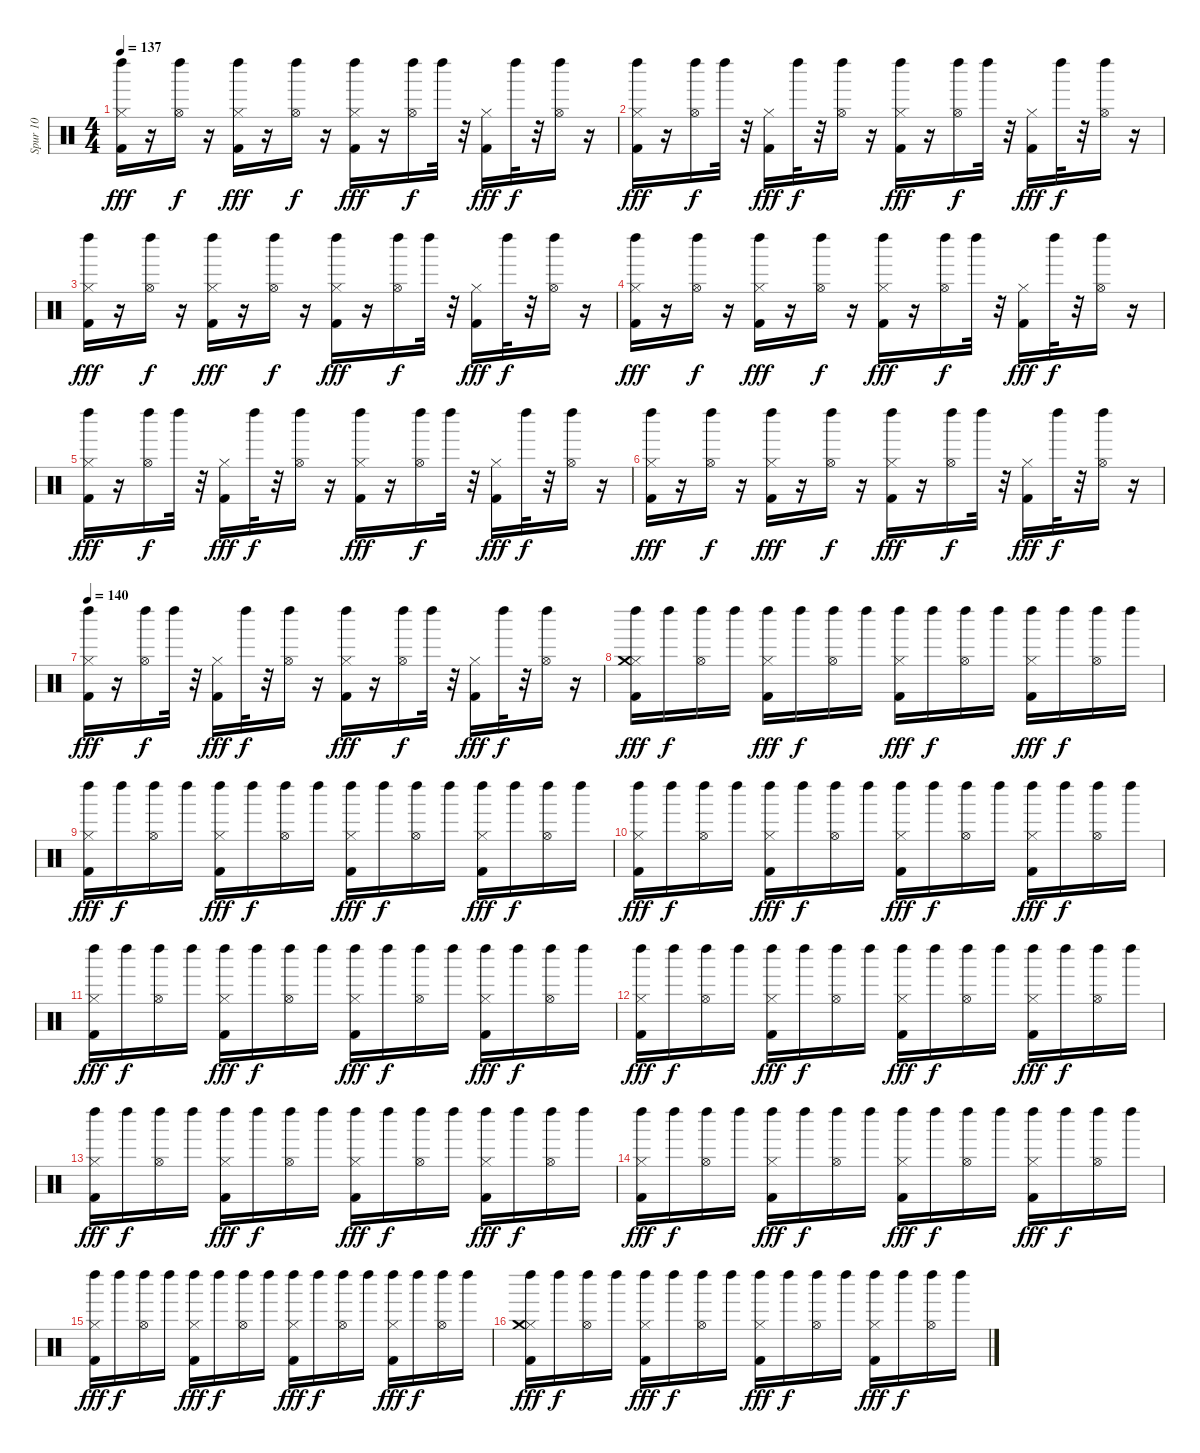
\track ("Spur 10" "Spur 10") {instrument percussion}
\staff {score}
\articulation defaults
\ts (4 4)
\tempo 137
\clef neutral
\ks c
("Kick (hit) 2" "Hi-Hat (closed)" "Left Maraca (hit)").16{dy fff} r.16 ("Hi-Hat (open)" "Left Maraca (hit)").16{dy f} r.16 ("Kick (hit) 2" "Hi-Hat (closed)" "Left Maraca (hit)").16{dy fff} r.16 ("Hi-Hat (open)" "Left Maraca (hit)").16{dy f} r.16 ("Kick (hit) 2" "Hi-Hat (closed)" "Left Maraca (hit)").16{dy fff} r.16 ("Hi-Hat (open)" "Left Maraca (hit)").16{dy f} "Left Maraca (hit)".32 r.32 ("Kick (hit) 2" "Hi-Hat (closed)").16{dy fff} "Left Maraca (hit)".32{dy f} r.32 ("Hi-Hat (open)" "Left Maraca (hit)").16 r.16 |
("Kick (hit) 2" "Hi-Hat (closed)" "Left Maraca (hit)").16{dy fff} r.16 ("Hi-Hat (open)" "Left Maraca (hit)").16{dy f} "Left Maraca (hit)".32 r.32 ("Kick (hit) 2" "Hi-Hat (closed)").16{dy fff} "Left Maraca (hit)".32{dy f} r.32 ("Hi-Hat (open)" "Left Maraca (hit)").16 r.16 ("Kick (hit) 2" "Hi-Hat (closed)" "Left Maraca (hit)").16{dy fff} r.16 ("Hi-Hat (open)" "Left Maraca (hit)").16{dy f} "Left Maraca (hit)".32 r.32 ("Kick (hit) 2" "Hi-Hat (closed)").16{dy fff} "Left Maraca (hit)".32{dy f} r.32 ("Hi-Hat (open)" "Left Maraca (hit)").16 r.16 |
("Kick (hit) 2" "Hi-Hat (closed)" "Left Maraca (hit)").16{dy fff} r.16 ("Hi-Hat (open)" "Left Maraca (hit)").16{dy f} r.16 ("Kick (hit) 2" "Hi-Hat (closed)" "Left Maraca (hit)").16{dy fff} r.16 ("Hi-Hat (open)" "Left Maraca (hit)").16{dy f} r.16 ("Kick (hit) 2" "Hi-Hat (closed)" "Left Maraca (hit)").16{dy fff} r.16 ("Hi-Hat (open)" "Left Maraca (hit)").16{dy f} "Left Maraca (hit)".32 r.32 ("Kick (hit) 2" "Hi-Hat (closed)").16{dy fff} "Left Maraca (hit)".32{dy f} r.32 ("Hi-Hat (open)" "Left Maraca (hit)").16 r.16 |
("Kick (hit) 2" "Hi-Hat (closed)" "Left Maraca (hit)").16{dy fff} r.16 ("Hi-Hat (open)" "Left Maraca (hit)").16{dy f} r.16 ("Kick (hit) 2" "Hi-Hat (closed)" "Left Maraca (hit)").16{dy fff} r.16 ("Hi-Hat (open)" "Left Maraca (hit)").16{dy f} r.16 ("Kick (hit) 2" "Hi-Hat (closed)" "Left Maraca (hit)").16{dy fff} r.16 ("Hi-Hat (open)" "Left Maraca (hit)").16{dy f} "Left Maraca (hit)".32 r.32 ("Kick (hit) 2" "Hi-Hat (closed)").16{dy fff} "Left Maraca (hit)".32{dy f} r.32 ("Hi-Hat (open)" "Left Maraca (hit)").16 r.16 |
("Kick (hit) 2" "Hi-Hat (closed)" "Left Maraca (hit)").16{dy fff} r.16 ("Hi-Hat (open)" "Left Maraca (hit)").16{dy f} "Left Maraca (hit)".32 r.32 ("Kick (hit) 2" "Hi-Hat (closed)").16{dy fff} "Left Maraca (hit)".32{dy f} r.32 ("Hi-Hat (open)" "Left Maraca (hit)").16 r.16 ("Kick (hit) 2" "Hi-Hat (closed)" "Left Maraca (hit)").16{dy fff} r.16 ("Hi-Hat (open)" "Left Maraca (hit)").16{dy f} "Left Maraca (hit)".32 r.32 ("Kick (hit) 2" "Hi-Hat (closed)").16{dy fff} "Left Maraca (hit)".32{dy f} r.32 ("Hi-Hat (open)" "Left Maraca (hit)").16 r.16 |
("Kick (hit) 2" "Hi-Hat (closed)" "Left Maraca (hit)").16{dy fff} r.16 ("Hi-Hat (open)" "Left Maraca (hit)").16{dy f} r.16 ("Kick (hit) 2" "Hi-Hat (closed)" "Left Maraca (hit)").16{dy fff} r.16 ("Hi-Hat (open)" "Left Maraca (hit)").16{dy f} r.16 ("Kick (hit) 2" "Hi-Hat (closed)" "Left Maraca (hit)").16{dy fff} r.16 ("Hi-Hat (open)" "Left Maraca (hit)").16{dy f} "Left Maraca (hit)".32 r.32 ("Kick (hit) 2" "Hi-Hat (closed)").16{dy fff} "Left Maraca (hit)".32{dy f} r.32 ("Hi-Hat (open)" "Left Maraca (hit)").16 r.16 |
\tempo 140
("Kick (hit) 2" "Hi-Hat (closed)" "Left Maraca (hit)").16{dy fff} r.16 ("Hi-Hat (open)" "Left Maraca (hit)").16{dy f} "Left Maraca (hit)".32 r.32 ("Kick (hit) 2" "Hi-Hat (closed)").16{dy fff} "Left Maraca (hit)".32{dy f} r.32 ("Hi-Hat (open)" "Left Maraca (hit)").16 r.16 ("Kick (hit) 2" "Hi-Hat (closed)" "Left Maraca (hit)").16{dy fff} r.16 ("Hi-Hat (open)" "Left Maraca (hit)").16{dy f} "Left Maraca (hit)".32 r.32 ("Kick (hit) 2" "Hi-Hat (closed)").16{dy fff} "Left Maraca (hit)".32{dy f} r.32 ("Hi-Hat (open)" "Left Maraca (hit)").16 r.16 |
("Kick (hit) 2" "Hi-Hat (closed)" "Crash medium (hit)" "Left Maraca (hit)").16{dy fff} "Left Maraca (hit)".16{dy f} ("Hi-Hat (open)" "Left Maraca (hit)").16 "Left Maraca (hit)".16 ("Kick (hit) 2" "Hi-Hat (closed)" "Left Maraca (hit)").16{dy fff} "Left Maraca (hit)".16{dy f} ("Hi-Hat (open)" "Left Maraca (hit)").16 "Left Maraca (hit)".16 ("Kick (hit) 2" "Hi-Hat (closed)" "Left Maraca (hit)").16{dy fff} "Left Maraca (hit)".16{dy f} ("Hi-Hat (open)" "Left Maraca (hit)").16 "Left Maraca (hit)".16 ("Kick (hit) 2" "Hi-Hat (closed)" "Left Maraca (hit)").16{dy fff} "Left Maraca (hit)".16{dy f} ("Hi-Hat (open)" "Left Maraca (hit)").16 "Left Maraca (hit)".16 |
("Kick (hit) 2" "Hi-Hat (closed)" "Left Maraca (hit)").16{dy fff} "Left Maraca (hit)".16{dy f} ("Hi-Hat (open)" "Left Maraca (hit)").16 "Left Maraca (hit)".16 ("Kick (hit) 2" "Hi-Hat (closed)" "Left Maraca (hit)").16{dy fff} "Left Maraca (hit)".16{dy f} ("Hi-Hat (open)" "Left Maraca (hit)").16 "Left Maraca (hit)".16 ("Kick (hit) 2" "Hi-Hat (closed)" "Left Maraca (hit)").16{dy fff} "Left Maraca (hit)".16{dy f} ("Hi-Hat (open)" "Left Maraca (hit)").16 "Left Maraca (hit)".16 ("Kick (hit) 2" "Hi-Hat (closed)" "Left Maraca (hit)").16{dy fff} "Left Maraca (hit)".16{dy f} ("Hi-Hat (open)" "Left Maraca (hit)").16 "Left Maraca (hit)".16 |
("Kick (hit) 2" "Hi-Hat (closed)" "Left Maraca (hit)").16{dy fff} "Left Maraca (hit)".16{dy f} ("Hi-Hat (open)" "Left Maraca (hit)").16 "Left Maraca (hit)".16 ("Kick (hit) 2" "Hi-Hat (closed)" "Left Maraca (hit)").16{dy fff} "Left Maraca (hit)".16{dy f} ("Hi-Hat (open)" "Left Maraca (hit)").16 "Left Maraca (hit)".16 ("Kick (hit) 2" "Hi-Hat (closed)" "Left Maraca (hit)").16{dy fff} "Left Maraca (hit)".16{dy f} ("Hi-Hat (open)" "Left Maraca (hit)").16 "Left Maraca (hit)".16 ("Kick (hit) 2" "Hi-Hat (closed)" "Left Maraca (hit)").16{dy fff} "Left Maraca (hit)".16{dy f} ("Hi-Hat (open)" "Left Maraca (hit)").16 "Left Maraca (hit)".16 |
("Kick (hit) 2" "Hi-Hat (closed)" "Left Maraca (hit)").16{dy fff} "Left Maraca (hit)".16{dy f} ("Hi-Hat (open)" "Left Maraca (hit)").16 "Left Maraca (hit)".16 ("Kick (hit) 2" "Hi-Hat (closed)" "Left Maraca (hit)").16{dy fff} "Left Maraca (hit)".16{dy f} ("Hi-Hat (open)" "Left Maraca (hit)").16 "Left Maraca (hit)".16 ("Kick (hit) 2" "Hi-Hat (closed)" "Left Maraca (hit)").16{dy fff} "Left Maraca (hit)".16{dy f} ("Hi-Hat (open)" "Left Maraca (hit)").16 "Left Maraca (hit)".16 ("Kick (hit) 2" "Hi-Hat (closed)" "Left Maraca (hit)").16{dy fff} "Left Maraca (hit)".16{dy f} ("Hi-Hat (open)" "Left Maraca (hit)").16 "Left Maraca (hit)".16 |
("Kick (hit) 2" "Hi-Hat (closed)" "Left Maraca (hit)").16{dy fff} "Left Maraca (hit)".16{dy f} ("Hi-Hat (open)" "Left Maraca (hit)").16 "Left Maraca (hit)".16 ("Kick (hit) 2" "Hi-Hat (closed)" "Left Maraca (hit)").16{dy fff} "Left Maraca (hit)".16{dy f} ("Hi-Hat (open)" "Left Maraca (hit)").16 "Left Maraca (hit)".16 ("Kick (hit) 2" "Hi-Hat (closed)" "Left Maraca (hit)").16{dy fff} "Left Maraca (hit)".16{dy f} ("Hi-Hat (open)" "Left Maraca (hit)").16 "Left Maraca (hit)".16 ("Kick (hit) 2" "Hi-Hat (closed)" "Left Maraca (hit)").16{dy fff} "Left Maraca (hit)".16{dy f} ("Hi-Hat (open)" "Left Maraca (hit)").16 "Left Maraca (hit)".16 |
("Kick (hit) 2" "Hi-Hat (closed)" "Left Maraca (hit)").16{dy fff} "Left Maraca (hit)".16{dy f} ("Hi-Hat (open)" "Left Maraca (hit)").16 "Left Maraca (hit)".16 ("Kick (hit) 2" "Hi-Hat (closed)" "Left Maraca (hit)").16{dy fff} "Left Maraca (hit)".16{dy f} ("Hi-Hat (open)" "Left Maraca (hit)").16 "Left Maraca (hit)".16 ("Kick (hit) 2" "Hi-Hat (closed)" "Left Maraca (hit)").16{dy fff} "Left Maraca (hit)".16{dy f} ("Hi-Hat (open)" "Left Maraca (hit)").16 "Left Maraca (hit)".16 ("Kick (hit) 2" "Hi-Hat (closed)" "Left Maraca (hit)").16{dy fff} "Left Maraca (hit)".16{dy f} ("Hi-Hat (open)" "Left Maraca (hit)").16 "Left Maraca (hit)".16 |
("Kick (hit) 2" "Hi-Hat (closed)" "Left Maraca (hit)").16{dy fff} "Left Maraca (hit)".16{dy f} ("Hi-Hat (open)" "Left Maraca (hit)").16 "Left Maraca (hit)".16 ("Kick (hit) 2" "Hi-Hat (closed)" "Left Maraca (hit)").16{dy fff} "Left Maraca (hit)".16{dy f} ("Hi-Hat (open)" "Left Maraca (hit)").16 "Left Maraca (hit)".16 ("Kick (hit) 2" "Hi-Hat (closed)" "Left Maraca (hit)").16{dy fff} "Left Maraca (hit)".16{dy f} ("Hi-Hat (open)" "Left Maraca (hit)").16 "Left Maraca (hit)".16 ("Kick (hit) 2" "Hi-Hat (closed)" "Left Maraca (hit)").16{dy fff} "Left Maraca (hit)".16{dy f} ("Hi-Hat (open)" "Left Maraca (hit)").16 "Left Maraca (hit)".16 |
("Kick (hit) 2" "Hi-Hat (closed)" "Left Maraca (hit)").16{dy fff} "Left Maraca (hit)".16{dy f} ("Hi-Hat (open)" "Left Maraca (hit)").16 "Left Maraca (hit)".16 ("Kick (hit) 2" "Hi-Hat (closed)" "Left Maraca (hit)").16{dy fff} "Left Maraca (hit)".16{dy f} ("Hi-Hat (open)" "Left Maraca (hit)").16 "Left Maraca (hit)".16 ("Kick (hit) 2" "Hi-Hat (closed)" "Left Maraca (hit)").16{dy fff} "Left Maraca (hit)".16{dy f} ("Hi-Hat (open)" "Left Maraca (hit)").16 "Left Maraca (hit)".16 ("Kick (hit) 2" "Hi-Hat (closed)" "Left Maraca (hit)").16{dy fff} "Left Maraca (hit)".16{dy f} ("Hi-Hat (open)" "Left Maraca (hit)").16 "Left Maraca (hit)".16 |
("Kick (hit) 2" "Hi-Hat (closed)" "Crash medium (hit)" "Left Maraca (hit)").16{dy fff} "Left Maraca (hit)".16{dy f} ("Hi-Hat (open)" "Left Maraca (hit)").16 "Left Maraca (hit)".16 ("Kick (hit) 2" "Hi-Hat (closed)" "Left Maraca (hit)").16{dy fff} "Left Maraca (hit)".16{dy f} ("Hi-Hat (open)" "Left Maraca (hit)").16 "Left Maraca (hit)".16 ("Kick (hit) 2" "Hi-Hat (closed)" "Left Maraca (hit)").16{dy fff} "Left Maraca (hit)".16{dy f} ("Hi-Hat (open)" "Left Maraca (hit)").16 "Left Maraca (hit)".16 ("Kick (hit) 2" "Hi-Hat (closed)" "Left Maraca (hit)").16{dy fff} "Left Maraca (hit)".16{dy f} ("Hi-Hat (open)" "Left Maraca (hit)").16 "Left Maraca (hit)".16
